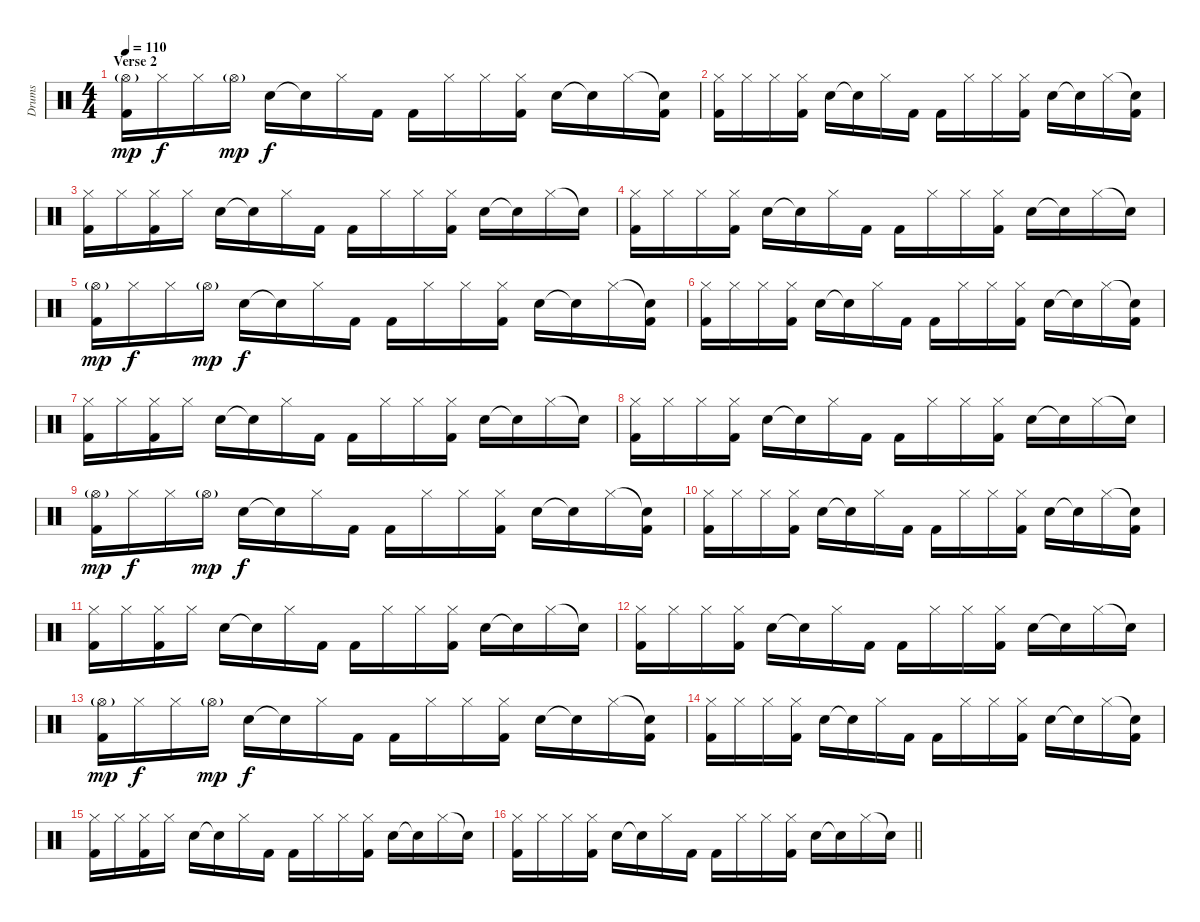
\track ("Drums" "Drums") {instrument percussion}
\staff {score}
\articulation defaults
\ts (4 4)
\section ("" "Verse 2")
\tempo 110
\clef neutral
\ks c
("Hi-Hat (open)"{g} "Kick (hit) 2").16{dy mp} "Hi-Hat (closed)".16{dy f} "Hi-Hat (closed)".16 "Hi-Hat (open)"{g}.16{dy mp} "Electric Snare (hit)".16{dy f} "Snare (hit)"{t}.16 "Hi-Hat (closed)".16 "Kick (hit) 2".16 "Kick (hit) 2".16 "Hi-Hat (closed)".16 "Hi-Hat (closed)".16 ("Hi-Hat (closed)" "Kick (hit) 2").16 "Electric Snare (hit)".16 "Snare (hit)"{t}.16 "Hi-Hat (closed)".16 ("Snare (hit)"{t} "Kick (hit) 2").16 |
("Hi-Hat (closed)" "Kick (hit) 2").16 "Hi-Hat (closed)".16 "Hi-Hat (closed)".16 ("Hi-Hat (closed)" "Kick (hit) 2").16 "Electric Snare (hit)".16 "Snare (hit)"{t}.16 "Hi-Hat (closed)".16 "Kick (hit) 2".16 "Kick (hit) 2".16 "Hi-Hat (closed)".16 "Hi-Hat (closed)".16 ("Hi-Hat (closed)" "Kick (hit) 2").16 "Electric Snare (hit)".16 "Snare (hit)"{t}.16 "Hi-Hat (closed)".16 ("Snare (hit)"{t} "Kick (hit) 2").16 |
("Hi-Hat (closed)" "Kick (hit) 2").16 "Hi-Hat (closed)".16 ("Hi-Hat (closed)" "Kick (hit) 2").16 "Hi-Hat (closed)".16 "Electric Snare (hit)".16 "Snare (hit)"{t}.16 "Hi-Hat (closed)".16 "Kick (hit) 2".16 "Kick (hit) 2".16 "Hi-Hat (closed)".16 "Hi-Hat (closed)".16 ("Hi-Hat (closed)" "Kick (hit) 2").16 "Electric Snare (hit)".16 "Snare (hit)"{t}.16 "Hi-Hat (closed)".16 "Snare (hit)"{t}.16 |
("Hi-Hat (closed)" "Kick (hit) 2").16 "Hi-Hat (closed)".16 "Hi-Hat (closed)".16 ("Hi-Hat (closed)" "Kick (hit) 2").16 "Electric Snare (hit)".16 "Snare (hit)"{t}.16 "Hi-Hat (closed)".16 "Kick (hit) 2".16 "Kick (hit) 2".16 "Hi-Hat (closed)".16 "Hi-Hat (closed)".16 ("Hi-Hat (closed)" "Kick (hit) 2").16 "Electric Snare (hit)".16 "Snare (hit)"{t}.16 "Hi-Hat (closed)".16 "Snare (hit)"{t}.16 |
("Hi-Hat (open)"{g} "Kick (hit) 2").16{dy mp} "Hi-Hat (closed)".16{dy f} "Hi-Hat (closed)".16 "Hi-Hat (open)"{g}.16{dy mp} "Electric Snare (hit)".16{dy f} "Snare (hit)"{t}.16 "Hi-Hat (closed)".16 "Kick (hit) 2".16 "Kick (hit) 2".16 "Hi-Hat (closed)".16 "Hi-Hat (closed)".16 ("Hi-Hat (closed)" "Kick (hit) 2").16 "Electric Snare (hit)".16 "Snare (hit)"{t}.16 "Hi-Hat (closed)".16 ("Snare (hit)"{t} "Kick (hit) 2").16 |
("Hi-Hat (closed)" "Kick (hit) 2").16 "Hi-Hat (closed)".16 "Hi-Hat (closed)".16 ("Hi-Hat (closed)" "Kick (hit) 2").16 "Electric Snare (hit)".16 "Snare (hit)"{t}.16 "Hi-Hat (closed)".16 "Kick (hit) 2".16 "Kick (hit) 2".16 "Hi-Hat (closed)".16 "Hi-Hat (closed)".16 ("Hi-Hat (closed)" "Kick (hit) 2").16 "Electric Snare (hit)".16 "Snare (hit)"{t}.16 "Hi-Hat (closed)".16 ("Snare (hit)"{t} "Kick (hit) 2").16 |
("Hi-Hat (closed)" "Kick (hit) 2").16 "Hi-Hat (closed)".16 ("Hi-Hat (closed)" "Kick (hit) 2").16 "Hi-Hat (closed)".16 "Electric Snare (hit)".16 "Snare (hit)"{t}.16 "Hi-Hat (closed)".16 "Kick (hit) 2".16 "Kick (hit) 2".16 "Hi-Hat (closed)".16 "Hi-Hat (closed)".16 ("Hi-Hat (closed)" "Kick (hit) 2").16 "Electric Snare (hit)".16 "Snare (hit)"{t}.16 "Hi-Hat (closed)".16 "Snare (hit)"{t}.16 |
("Hi-Hat (closed)" "Kick (hit) 2").16 "Hi-Hat (closed)".16 "Hi-Hat (closed)".16 ("Hi-Hat (closed)" "Kick (hit) 2").16 "Electric Snare (hit)".16 "Snare (hit)"{t}.16 "Hi-Hat (closed)".16 "Kick (hit) 2".16 "Kick (hit) 2".16 "Hi-Hat (closed)".16 "Hi-Hat (closed)".16 ("Hi-Hat (closed)" "Kick (hit) 2").16 "Electric Snare (hit)".16 "Snare (hit)"{t}.16 "Hi-Hat (closed)".16 "Snare (hit)"{t}.16 |
("Hi-Hat (open)"{g} "Kick (hit) 2").16{dy mp} "Hi-Hat (closed)".16{dy f} "Hi-Hat (closed)".16 "Hi-Hat (open)"{g}.16{dy mp} "Electric Snare (hit)".16{dy f} "Snare (hit)"{t}.16 "Hi-Hat (closed)".16 "Kick (hit) 2".16 "Kick (hit) 2".16 "Hi-Hat (closed)".16 "Hi-Hat (closed)".16 ("Hi-Hat (closed)" "Kick (hit) 2").16 "Electric Snare (hit)".16 "Snare (hit)"{t}.16 "Hi-Hat (closed)".16 ("Snare (hit)"{t} "Kick (hit) 2").16 |
("Hi-Hat (closed)" "Kick (hit) 2").16 "Hi-Hat (closed)".16 "Hi-Hat (closed)".16 ("Hi-Hat (closed)" "Kick (hit) 2").16 "Electric Snare (hit)".16 "Snare (hit)"{t}.16 "Hi-Hat (closed)".16 "Kick (hit) 2".16 "Kick (hit) 2".16 "Hi-Hat (closed)".16 "Hi-Hat (closed)".16 ("Hi-Hat (closed)" "Kick (hit) 2").16 "Electric Snare (hit)".16 "Snare (hit)"{t}.16 "Hi-Hat (closed)".16 ("Snare (hit)"{t} "Kick (hit) 2").16 |
("Hi-Hat (closed)" "Kick (hit) 2").16 "Hi-Hat (closed)".16 ("Hi-Hat (closed)" "Kick (hit) 2").16 "Hi-Hat (closed)".16 "Electric Snare (hit)".16 "Snare (hit)"{t}.16 "Hi-Hat (closed)".16 "Kick (hit) 2".16 "Kick (hit) 2".16 "Hi-Hat (closed)".16 "Hi-Hat (closed)".16 ("Hi-Hat (closed)" "Kick (hit) 2").16 "Electric Snare (hit)".16 "Snare (hit)"{t}.16 "Hi-Hat (closed)".16 "Snare (hit)"{t}.16 |
("Hi-Hat (closed)" "Kick (hit) 2").16 "Hi-Hat (closed)".16 "Hi-Hat (closed)".16 ("Hi-Hat (closed)" "Kick (hit) 2").16 "Electric Snare (hit)".16 "Snare (hit)"{t}.16 "Hi-Hat (closed)".16 "Kick (hit) 2".16 "Kick (hit) 2".16 "Hi-Hat (closed)".16 "Hi-Hat (closed)".16 ("Hi-Hat (closed)" "Kick (hit) 2").16 "Electric Snare (hit)".16 "Snare (hit)"{t}.16 "Hi-Hat (closed)".16 "Snare (hit)"{t}.16 |
("Hi-Hat (open)"{g} "Kick (hit) 2").16{dy mp} "Hi-Hat (closed)".16{dy f} "Hi-Hat (closed)".16 "Hi-Hat (open)"{g}.16{dy mp} "Electric Snare (hit)".16{dy f} "Snare (hit)"{t}.16 "Hi-Hat (closed)".16 "Kick (hit) 2".16 "Kick (hit) 2".16 "Hi-Hat (closed)".16 "Hi-Hat (closed)".16 ("Hi-Hat (closed)" "Kick (hit) 2").16 "Electric Snare (hit)".16 "Snare (hit)"{t}.16 "Hi-Hat (closed)".16 ("Snare (hit)"{t} "Kick (hit) 2").16 |
("Hi-Hat (closed)" "Kick (hit) 2").16 "Hi-Hat (closed)".16 "Hi-Hat (closed)".16 ("Hi-Hat (closed)" "Kick (hit) 2").16 "Electric Snare (hit)".16 "Snare (hit)"{t}.16 "Hi-Hat (closed)".16 "Kick (hit) 2".16 "Kick (hit) 2".16 "Hi-Hat (closed)".16 "Hi-Hat (closed)".16 ("Hi-Hat (closed)" "Kick (hit) 2").16 "Electric Snare (hit)".16 "Snare (hit)"{t}.16 "Hi-Hat (closed)".16 ("Snare (hit)"{t} "Kick (hit) 2").16 |
("Hi-Hat (closed)" "Kick (hit) 2").16 "Hi-Hat (closed)".16 ("Hi-Hat (closed)" "Kick (hit) 2").16 "Hi-Hat (closed)".16 "Electric Snare (hit)".16 "Snare (hit)"{t}.16 "Hi-Hat (closed)".16 "Kick (hit) 2".16 "Kick (hit) 2".16 "Hi-Hat (closed)".16 "Hi-Hat (closed)".16 ("Hi-Hat (closed)" "Kick (hit) 2").16 "Electric Snare (hit)".16 "Snare (hit)"{t}.16 "Hi-Hat (closed)".16 "Snare (hit)"{t}.16 |
\barLineRight lightlight
("Hi-Hat (closed)" "Kick (hit) 2").16 "Hi-Hat (closed)".16 "Hi-Hat (closed)".16 ("Hi-Hat (closed)" "Kick (hit) 2").16 "Electric Snare (hit)".16 "Snare (hit)"{t}.16 "Hi-Hat (closed)".16 "Kick (hit) 2".16 "Kick (hit) 2".16 "Hi-Hat (closed)".16 "Hi-Hat (closed)".16 ("Hi-Hat (closed)" "Kick (hit) 2").16 "Electric Snare (hit)".16 "Snare (hit)"{t}.16 "Hi-Hat (closed)".16 "Snare (hit)"{t}.16
